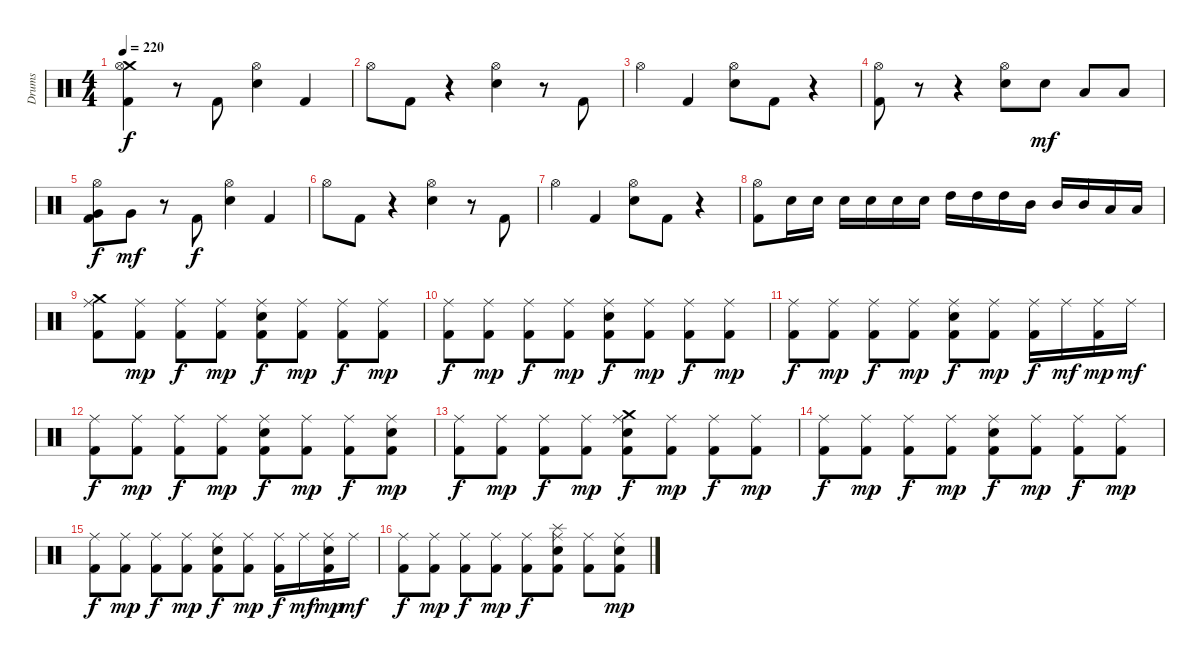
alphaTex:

\bracketExtendMode groupsimilarinstruments
\otherSystemsTrackNameOrientation horizontal
\track ("Drumkit" "Drums") {instrument percussion}
\staff {score}
\articulation defaults
\ts (4 4)
\tempo 220
\clef neutral
\ks c
("Crash medium (hit)" "Hi-Hat (open)" "Kick (hit) 2").4{dy f beam Down} r.8{beam Down} "Kick (hit) 2".8{beam Up} ("Hi-Hat (open)" "Snare (hit) 2").4{beam Down} "Kick (hit) 2".4{beam Up} |
"Hi-Hat (open)".8{beam Down} "Kick (hit) 2".8{beam Down} r.4{beam Down} ("Hi-Hat (open)" "Snare (hit) 2").4{beam Down} r.8{beam Down} "Kick (hit) 2".8{beam Up} |
"Hi-Hat (open)".4{beam Down} "Kick (hit) 2".4{beam Up} ("Hi-Hat (open)" "Snare (hit) 2").8{beam Down} "Kick (hit) 2".8{beam Down} r.4{beam Down} |
("Hi-Hat (open)" "Kick (hit) 2").8{beam Down} r.8{beam Down} r.4{beam Down} ("Hi-Hat (open)" "Snare (hit) 2").8{beam Down} "Snare (hit) 2".8{dy mf beam Down} "Low Tom (hit)".8{beam Up} "Low Tom (hit)".8{beam Up} |
("Hi-Hat (open)" "Very Low Tom (hit)" "Kick (hit) 2").8{dy f beam Down} "Very Low Tom (hit)".8{dy mf beam Down} r.8{beam Down} "Kick (hit) 2".8{dy f beam Up} ("Hi-Hat (open)" "Snare (hit) 2").4{beam Down} "Kick (hit) 2".4{beam Up} |
"Hi-Hat (open)".8{beam Down} "Kick (hit) 2".8{beam Down} r.4{beam Down} ("Hi-Hat (open)" "Snare (hit) 2").4{beam Down} r.8{beam Down} "Kick (hit) 2".8{beam Up} |
"Hi-Hat (open)".4{beam Down} "Kick (hit) 2".4{beam Up} ("Hi-Hat (open)" "Snare (hit) 2").8{beam Down} "Kick (hit) 2".8{beam Down} r.4{beam Down} |
("Hi-Hat (open)" "Kick (hit) 2").8{beam Down} "Snare (hit) 2".16{beam Down} "Snare (hit) 2".16{beam Down} "Snare (hit) 2".16{beam Down} "Snare (hit) 2".16{beam Down} "Snare (hit) 2".16{beam Down} "Snare (hit) 2".16{beam Down} "High Tom (hit)".16{beam Down} "High Tom (hit)".16{beam Down} "High Tom (hit)".16{beam Down} "Mid Tom (hit)".16{beam Down} "Mid Tom (hit)".16{beam Up} "Mid Tom (hit)".16{beam Up} "Low Tom (hit)".16{beam Up} "Low Tom (hit)".16{beam Up} |
("Crash medium (hit)" "Ride (middle)" "Kick (hit) 2").8{beam Down} ("Ride (middle)" "Kick (hit) 2").8{dy mp beam Down} ("Ride (middle)" "Kick (hit) 2").8{dy f beam Down} ("Ride (middle)" "Kick (hit) 2").8{dy mp beam Down} ("Ride (middle)" "Snare (hit) 2" "Kick (hit) 2").8{dy f beam Down} ("Ride (middle)" "Kick (hit) 2").8{dy mp beam Down} ("Ride (middle)" "Kick (hit) 2").8{dy f beam Down} ("Ride (middle)" "Kick (hit) 2").8{dy mp beam Down} |
("Ride (middle)" "Kick (hit) 2").8{dy f beam Down} ("Ride (middle)" "Kick (hit) 2").8{dy mp beam Down} ("Ride (middle)" "Kick (hit) 2").8{dy f beam Down} ("Ride (middle)" "Kick (hit) 2").8{dy mp beam Down} ("Ride (middle)" "Snare (hit) 2" "Kick (hit) 2").8{dy f beam Down} ("Ride (middle)" "Kick (hit) 2").8{dy mp beam Down} ("Ride (middle)" "Kick (hit) 2").8{dy f beam Down} ("Ride (middle)" "Kick (hit) 2").8{dy mp beam Down} |
("Ride (middle)" "Kick (hit) 2").8{dy f beam Down} ("Ride (middle)" "Kick (hit) 2").8{dy mp beam Down} ("Ride (middle)" "Kick (hit) 2").8{dy f beam Down} ("Ride (middle)" "Kick (hit) 2").8{dy mp beam Down} ("Ride (middle)" "Snare (hit) 2" "Kick (hit) 2").8{dy f beam Down} ("Ride (middle)" "Kick (hit) 2").8{dy mp beam Down} ("Ride (middle)" "Kick (hit) 2").16{dy f beam Down} "Ride (middle)".16{dy mf beam Down} ("Ride (middle)" "Kick (hit) 2").16{dy mp beam Down} "Ride (middle)".16{dy mf beam Down} |
("Ride (middle)" "Kick (hit) 2").8{dy f beam Down} ("Ride (middle)" "Kick (hit) 2").8{dy mp beam Down} ("Ride (middle)" "Kick (hit) 2").8{dy f beam Down} ("Ride (middle)" "Kick (hit) 2").8{dy mp beam Down} ("Ride (middle)" "Snare (hit) 2" "Kick (hit) 2").8{dy f beam Down} ("Ride (middle)" "Kick (hit) 2").8{dy mp beam Down} ("Ride (middle)" "Kick (hit) 2").8{dy f beam Down} ("Ride (middle)" "Snare (hit) 2" "Kick (hit) 2").8{dy mp beam Down} |
("Ride (middle)" "Kick (hit) 2").8{dy f beam Down} ("Ride (middle)" "Kick (hit) 2").8{dy mp beam Down} ("Ride (middle)" "Kick (hit) 2").8{dy f beam Down} ("Ride (middle)" "Kick (hit) 2").8{dy mp beam Down} ("Crash medium (hit)" "Ride (middle)" "Snare (hit) 2" "Kick (hit) 2").8{dy f beam Down} ("Ride (middle)" "Kick (hit) 2").8{dy mp beam Down} ("Ride (middle)" "Kick (hit) 2").8{dy f beam Down} ("Ride (middle)" "Kick (hit) 2").8{dy mp beam Down} |
("Ride (middle)" "Kick (hit) 2").8{dy f beam Down} ("Ride (middle)" "Kick (hit) 2").8{dy mp beam Down} ("Ride (middle)" "Kick (hit) 2").8{dy f beam Down} ("Ride (middle)" "Kick (hit) 2").8{dy mp beam Down} ("Ride (middle)" "Snare (hit) 2" "Kick (hit) 2").8{dy f beam Down} ("Ride (middle)" "Kick (hit) 2").8{dy mp beam Down} ("Ride (middle)" "Kick (hit) 2").8{dy f beam Down} ("Ride (middle)" "Kick (hit) 2").8{dy mp beam Down} |
("Ride (middle)" "Kick (hit) 2").8{dy f beam Down} ("Ride (middle)" "Kick (hit) 2").8{dy mp beam Down} ("Ride (middle)" "Kick (hit) 2").8{dy f beam Down} ("Ride (middle)" "Kick (hit) 2").8{dy mp beam Down} ("Ride (middle)" "Snare (hit) 2" "Kick (hit) 2").8{dy f beam Down} ("Ride (middle)" "Kick (hit) 2").8{dy mp beam Down} ("Ride (middle)" "Kick (hit) 2").16{dy f beam Down} "Ride (middle)".16{dy mf beam Down} ("Ride (middle)" "Snare (hit) 2" "Kick (hit) 2").16{dy mp beam Down} "Ride (middle)".16{dy mf beam Down} |
("Ride (middle)" "Kick (hit) 2").8{dy f beam Down} ("Ride (middle)" "Kick (hit) 2").8{dy mp beam Down} ("Ride (middle)" "Kick (hit) 2").8{dy f beam Down} ("Ride (middle)" "Kick (hit) 2").8{dy mp beam Down} ("Ride (middle)" "Kick (hit) 2").8{dy f beam Down} ("Splash (hit)" "Ride (middle)" "Snare (hit) 2" "Kick (hit) 2").8{beam Down} ("Ride (middle)" "Kick (hit) 2").8{beam Down} ("Ride (middle)" "Snare (hit) 2" "Kick (hit) 2").8{dy mp beam Down}
